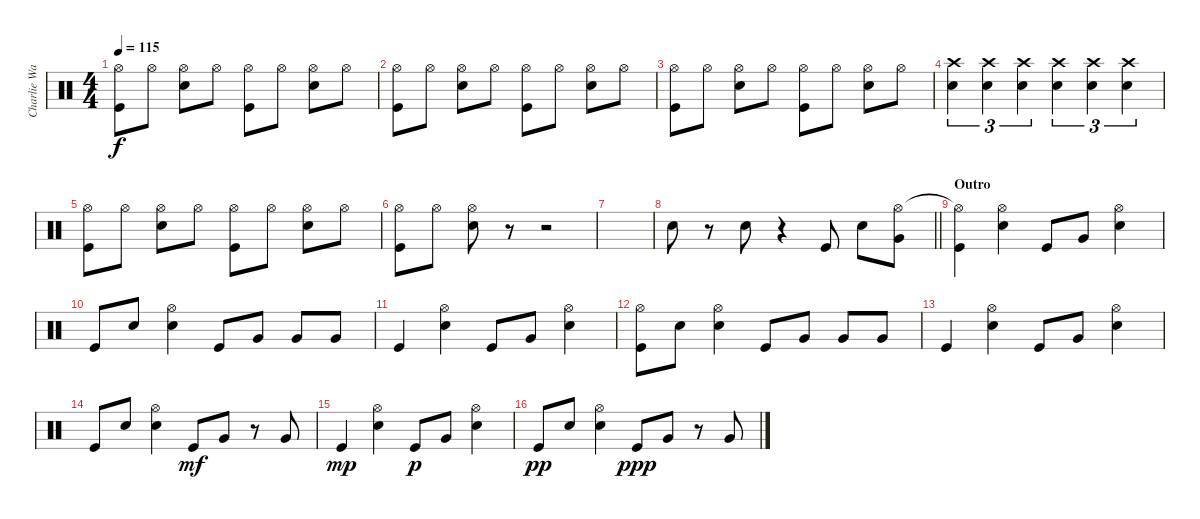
\track ("Charlie Watts" "Charlie Wa") {instrument percussion}
\staff {score}
\articulation defaults
\ts (4 4)
\tempo 115
\clef neutral
\ks c
("Hi-Hat (open)" "Kick (hit)").8{dy f} "Hi-Hat (open)".8 ("Hi-Hat (open)" "Snare (hit) 2").8 "Hi-Hat (open)".8 ("Hi-Hat (open)" "Kick (hit)").8 "Hi-Hat (open)".8 ("Hi-Hat (open)" "Snare (hit) 2").8 "Hi-Hat (open)".8 |
("Hi-Hat (open)" "Kick (hit)").8 "Hi-Hat (open)".8 ("Hi-Hat (open)" "Snare (hit) 2").8 "Hi-Hat (open)".8 ("Hi-Hat (open)" "Kick (hit)").8 "Hi-Hat (open)".8 ("Hi-Hat (open)" "Snare (hit) 2").8 "Hi-Hat (open)".8 |
("Hi-Hat (open)" "Kick (hit)").8 "Hi-Hat (open)".8 ("Hi-Hat (open)" "Snare (hit) 2").8 "Hi-Hat (open)".8 ("Hi-Hat (open)" "Kick (hit)").8 "Hi-Hat (open)".8 ("Hi-Hat (open)" "Snare (hit) 2").8 "Hi-Hat (open)".8 |
("Crash high (hit)" "Snare (hit) 2").4{tu (3 2)} ("Crash high (hit)" "Snare (hit) 2").4{tu (3 2)} ("Crash high (hit)" "Snare (hit) 2").4{tu (3 2)} ("Crash high (hit)" "Snare (hit) 2").4{tu (3 2)} ("Crash high (hit)" "Snare (hit) 2").4{tu (3 2)} ("Crash high (hit)" "Snare (hit) 2").4{tu (3 2)} |
("Hi-Hat (open)" "Kick (hit)").8 "Hi-Hat (open)".8 ("Hi-Hat (open)" "Snare (hit) 2").8 "Hi-Hat (open)".8 ("Hi-Hat (open)" "Kick (hit)").8 "Hi-Hat (open)".8 ("Hi-Hat (open)" "Snare (hit) 2").8 "Hi-Hat (open)".8 |
("Hi-Hat (open)" "Kick (hit)").8 "Hi-Hat (open)".8 ("Hi-Hat (open)" "Snare (hit) 2").8 r.8 r.2 |
|
\barLineRight lightlight "Snare (hit) 2".8
r.8 "Snare (hit) 2".8 r.4 "Kick (hit)".8 "Snare (hit) 2".8 ("Hi-Hat (open)" "Very Low Tom (hit)").8 |
\section ("" "Outro")
("Hi-Hat (open)"{t} "Kick (hit)").4 ("Hi-Hat (open)" "Snare (hit) 2").4 "Kick (hit)".8 "Very Low Tom (hit)".8 ("Hi-Hat (open)" "Snare (hit) 2").4 |
"Kick (hit)".8 "Snare (hit) 2".8 ("Hi-Hat (open)" "Snare (hit) 2").4 "Kick (hit)".8 "Very Low Tom (hit)".8 "Very Low Tom (hit)".8 "Very Low Tom (hit)".8 |
"Kick (hit)".4 ("Hi-Hat (open)" "Snare (hit) 2").4 "Kick (hit)".8 "Very Low Tom (hit)".8 ("Hi-Hat (open)" "Snare (hit) 2").4 |
("Hi-Hat (open)" "Kick (hit)").8 "Snare (hit) 2".8 ("Hi-Hat (open)" "Snare (hit) 2").4 "Kick (hit)".8 "Very Low Tom (hit)".8 "Very Low Tom (hit)".8 "Very Low Tom (hit)".8 |
"Kick (hit)".4 ("Hi-Hat (open)" "Snare (hit) 2").4 "Kick (hit)".8 "Very Low Tom (hit)".8 ("Hi-Hat (open)" "Snare (hit) 2").4 |
"Kick (hit)".8 "Snare (hit) 2".8 ("Hi-Hat (open)" "Snare (hit) 2").4 "Kick (hit)".8{dy mf} "Very Low Tom (hit)".8 r.8 "Very Low Tom (hit)".8 |
"Kick (hit)".4{dy mp} ("Hi-Hat (open)" "Snare (hit) 2").4 "Kick (hit)".8{dy p} "Very Low Tom (hit)".8 ("Hi-Hat (open)" "Snare (hit) 2").4 |
"Kick (hit)".8{dy pp} "Snare (hit) 2".8 ("Hi-Hat (open)" "Snare (hit) 2").4 "Kick (hit)".8{dy ppp} "Very Low Tom (hit)".8 r.8 "Very Low Tom (hit)".8
